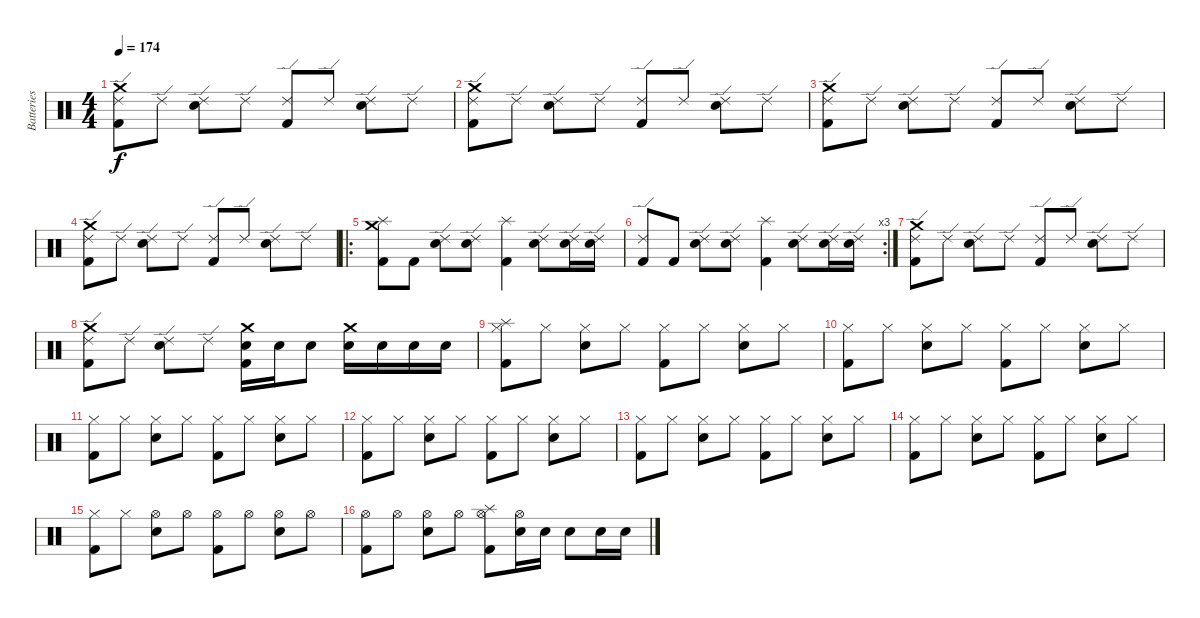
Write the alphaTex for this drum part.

\track ("Batteries" "Batteries") {instrument percussion}
\staff {score}
\articulation defaults
\ts (4 4)
\tempo 174
\clef neutral
\ks c
("Crash medium (hit)" "Ride (edge) 2" "Kick (hit) 2").8{dy f} "Ride (edge) 2".8 ("Ride (edge) 2" "Electric Snare (hit)").8 "Ride (edge) 2".8 ("Ride (edge) 2" "Kick (hit) 2").8 "Ride (edge) 2".8 ("Ride (edge) 2" "Electric Snare (hit)").8 "Ride (edge) 2".8 |
("Crash medium (hit)" "Ride (edge) 2" "Kick (hit) 2").8 "Ride (edge) 2".8 ("Ride (edge) 2" "Electric Snare (hit)").8 "Ride (edge) 2".8 ("Ride (edge) 2" "Kick (hit) 2").8 "Ride (edge) 2".8 ("Ride (edge) 2" "Electric Snare (hit)").8 "Ride (edge) 2".8 |
("Crash medium (hit)" "Ride (edge) 2" "Kick (hit) 2").8 "Ride (edge) 2".8 ("Ride (edge) 2" "Electric Snare (hit)").8 "Ride (edge) 2".8 ("Ride (edge) 2" "Kick (hit) 2").8 "Ride (edge) 2".8 ("Ride (edge) 2" "Electric Snare (hit)").8 "Ride (edge) 2".8 |
("Crash medium (hit)" "Ride (edge) 2" "Kick (hit) 2").8 "Ride (edge) 2".8 ("Ride (edge) 2" "Electric Snare (hit)").8 "Ride (edge) 2".8 ("Ride (edge) 2" "Kick (hit) 2").8 "Ride (edge) 2".8 ("Ride (edge) 2" "Electric Snare (hit)").8 "Ride (edge) 2".8 |
\ro
("Splash (hit)" "Crash medium (hit)" "Kick (hit) 2").8 "Kick (hit) 2".8 ("Ride (edge) 2" "Electric Snare (hit)").8 ("Ride (edge) 2" "Electric Snare (hit)").8 ("Splash (hit)" "Kick (hit) 2").4 ("Ride (edge) 2" "Electric Snare (hit)").8 ("Ride (edge) 2" "Electric Snare (hit)").16 ("Ride (edge) 2" "Electric Snare (hit)").16 |
\rc 3
("Ride (edge) 2" "Kick (hit) 2").8 "Kick (hit) 2".8 ("Ride (edge) 2" "Electric Snare (hit)").8 ("Ride (edge) 2" "Electric Snare (hit)").8 ("Splash (hit)" "Kick (hit) 2").4 ("Ride (edge) 2" "Electric Snare (hit)").8 ("Ride (edge) 2" "Electric Snare (hit)").16 ("Ride (edge) 2" "Electric Snare (hit)").16 |
("Crash medium (hit)" "Ride (edge) 2" "Kick (hit) 2").8 "Ride (edge) 2".8 ("Ride (edge) 2" "Electric Snare (hit)").8 "Ride (edge) 2".8 ("Ride (edge) 2" "Kick (hit) 2").8 "Ride (edge) 2".8 ("Ride (edge) 2" "Electric Snare (hit)").8 "Ride (edge) 2".8 |
("Crash medium (hit)" "Ride (edge) 2" "Kick (hit) 2").8 "Ride (edge) 2".8 ("Ride (edge) 2" "Electric Snare (hit)").8 "Ride (edge) 2".8 ("Crash medium (hit)" "Electric Snare (hit)" "Kick (hit) 2").16 "Electric Snare (hit)".16 "Electric Snare (hit)".8 ("Crash medium (hit)" "Electric Snare (hit)").16 "Electric Snare (hit)".16 "Electric Snare (hit)".16 "Electric Snare (hit)".16 |
("Hi-Hat (closed)" "Splash (hit)" "Kick (hit) 2").8 "Hi-Hat (closed)".8 ("Hi-Hat (closed)" "Electric Snare (hit)").8 "Hi-Hat (closed)".8 ("Hi-Hat (closed)" "Kick (hit) 2").8 "Hi-Hat (closed)".8 ("Hi-Hat (closed)" "Electric Snare (hit)").8 "Hi-Hat (closed)".8 |
("Hi-Hat (closed)" "Kick (hit) 2").8 "Hi-Hat (closed)".8 ("Hi-Hat (closed)" "Electric Snare (hit)").8 "Hi-Hat (closed)".8 ("Hi-Hat (closed)" "Kick (hit) 2").8 "Hi-Hat (closed)".8 ("Hi-Hat (closed)" "Electric Snare (hit)").8 "Hi-Hat (closed)".8 |
("Hi-Hat (closed)" "Kick (hit) 2").8 "Hi-Hat (closed)".8 ("Hi-Hat (closed)" "Electric Snare (hit)").8 "Hi-Hat (closed)".8 ("Hi-Hat (closed)" "Kick (hit) 2").8 "Hi-Hat (closed)".8 ("Hi-Hat (closed)" "Electric Snare (hit)").8 "Hi-Hat (closed)".8 |
("Hi-Hat (closed)" "Kick (hit) 2").8 "Hi-Hat (closed)".8 ("Hi-Hat (closed)" "Electric Snare (hit)").8 "Hi-Hat (closed)".8 ("Hi-Hat (closed)" "Kick (hit) 2").8 "Hi-Hat (closed)".8 ("Hi-Hat (closed)" "Electric Snare (hit)").8 "Hi-Hat (closed)".8 |
("Hi-Hat (closed)" "Kick (hit) 2").8 "Hi-Hat (closed)".8 ("Hi-Hat (closed)" "Electric Snare (hit)").8 "Hi-Hat (closed)".8 ("Hi-Hat (closed)" "Kick (hit) 2").8 "Hi-Hat (closed)".8 ("Hi-Hat (closed)" "Electric Snare (hit)").8 "Hi-Hat (closed)".8 |
("Hi-Hat (closed)" "Kick (hit) 2").8 "Hi-Hat (closed)".8 ("Hi-Hat (closed)" "Electric Snare (hit)").8 "Hi-Hat (closed)".8 ("Hi-Hat (closed)" "Kick (hit) 2").8 "Hi-Hat (closed)".8 ("Hi-Hat (closed)" "Electric Snare (hit)").8 "Hi-Hat (closed)".8 |
("Hi-Hat (closed)" "Kick (hit) 2").8 "Hi-Hat (closed)".8 ("Hi-Hat (open)" "Electric Snare (hit)").8 "Hi-Hat (open)".8 ("Hi-Hat (open)" "Kick (hit) 2").8 "Hi-Hat (open)".8 ("Hi-Hat (open)" "Electric Snare (hit)").8 "Hi-Hat (open)".8 |
("Hi-Hat (open)" "Kick (hit) 2").8 "Hi-Hat (open)".8 ("Hi-Hat (open)" "Electric Snare (hit)").8 "Hi-Hat (open)".8 ("Hi-Hat (open)" "Splash (hit)" "Kick (hit) 2").8 ("Hi-Hat (open)" "Electric Snare (hit)").16 "Electric Snare (hit)".16 "Electric Snare (hit)".8 "Electric Snare (hit)".16 "Electric Snare (hit)".16
